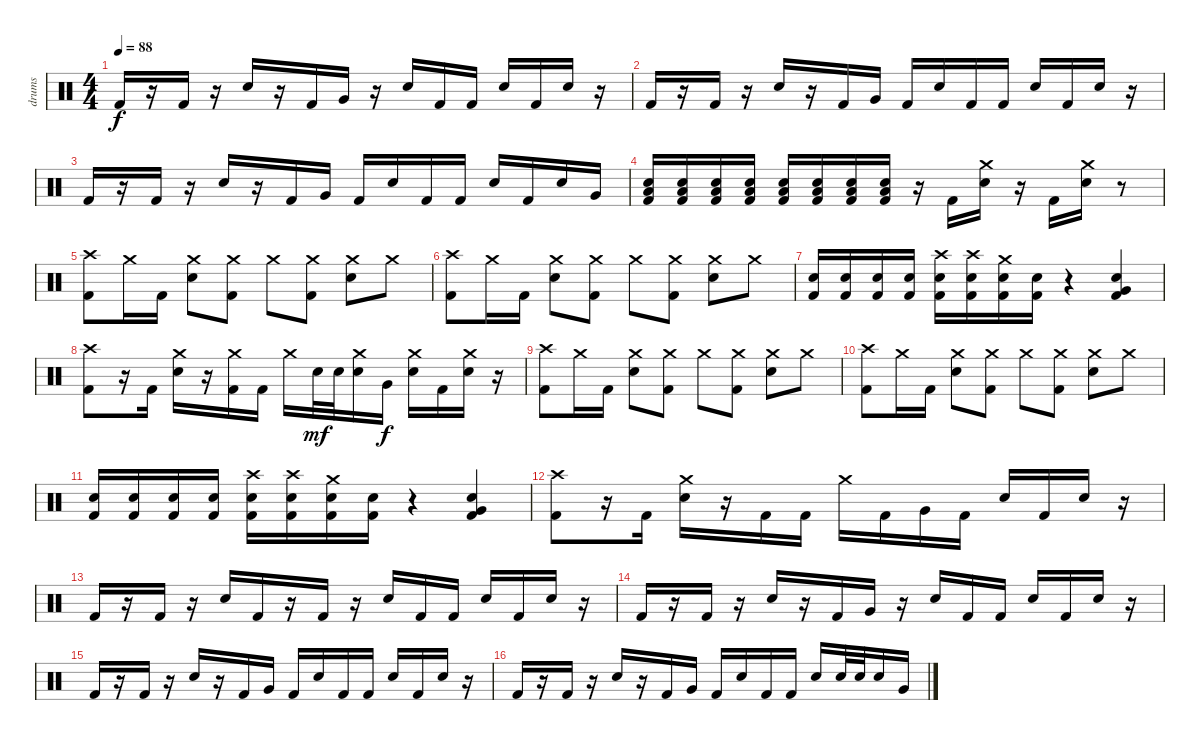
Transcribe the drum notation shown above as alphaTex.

\track ("drums" "drums") {instrument percussion}
\staff {score}
\articulation defaults
\ts (4 4)
\tempo 88
\clef neutral
\ks c "Kick (hit) 2".16{dy f}
r.16 "Kick (hit) 2".16 r.16 "Electric Snare (hit)".16 r.16 "Kick (hit) 2".16 "Very Low Tom (hit)".16 r.16 "Electric Snare (hit)".16 "Kick (hit) 2".16 "Kick (hit) 2".16 "Electric Snare (hit)".16 "Kick (hit) 2".16 "Electric Snare (hit)".16 r.16 |
"Kick (hit) 2".16 r.16 "Kick (hit) 2".16 r.16 "Electric Snare (hit)".16 r.16 "Kick (hit) 2".16 "Very Low Tom (hit)".16 "Kick (hit) 2".16 "Electric Snare (hit)".16 "Kick (hit) 2".16 "Kick (hit) 2".16 "Electric Snare (hit)".16 "Kick (hit) 2".16 "Electric Snare (hit)".16 r.16 |
"Kick (hit) 2".16 r.16 "Kick (hit) 2".16 r.16 "Electric Snare (hit)".16 r.16 "Kick (hit) 2".16 "Very Low Tom (hit)".16 "Kick (hit) 2".16 "Electric Snare (hit)".16 "Kick (hit) 2".16 "Kick (hit) 2".16 "Electric Snare (hit)".16 "Kick (hit) 2".16 "Electric Snare (hit)".16 "Very Low Tom (hit)".16 |
("Electric Snare (hit)" "Low Tom (hit)" "Kick (hit) 2").16 ("Electric Snare (hit)" "Low Tom (hit)" "Kick (hit) 2").16 ("Electric Snare (hit)" "Low Tom (hit)" "Kick (hit) 2").16 ("Electric Snare (hit)" "Low Tom (hit)" "Kick (hit) 2").16 ("Electric Snare (hit)" "Low Tom (hit)" "Kick (hit) 2").16 ("Electric Snare (hit)" "Low Tom (hit)" "Kick (hit) 2").16 ("Electric Snare (hit)" "Low Tom (hit)" "Kick (hit) 2").16 ("Electric Snare (hit)" "Low Tom (hit)" "Kick (hit) 2").16 r.16 "Kick (hit) 2".16 ("Crash medium (hit)" "Electric Snare (hit)").16 r.16 "Kick (hit) 2".16 ("Crash medium (hit)" "Electric Snare (hit)").16 r.8 |
("Crash high (hit)" "Kick (hit) 2").8 "Crash medium (hit)".16 "Kick (hit) 2".16 ("Crash medium (hit)" "Electric Snare (hit)").8 ("Crash medium (hit)" "Kick (hit) 2").8 "Crash medium (hit)".8 ("Crash medium (hit)" "Kick (hit) 2").8 ("Crash medium (hit)" "Electric Snare (hit)").8 "Crash medium (hit)".8 |
("Crash high (hit)" "Kick (hit) 2").8 "Crash medium (hit)".16 "Kick (hit) 2".16 ("Crash medium (hit)" "Electric Snare (hit)").8 ("Crash medium (hit)" "Kick (hit) 2").8 "Crash medium (hit)".8 ("Crash medium (hit)" "Kick (hit) 2").8 ("Crash medium (hit)" "Electric Snare (hit)").8 "Crash medium (hit)".8 |
("Electric Snare (hit)" "Kick (hit) 2").16 ("Electric Snare (hit)" "Kick (hit) 2").16 ("Electric Snare (hit)" "Kick (hit) 2").16 ("Electric Snare (hit)" "Kick (hit) 2").16 ("Crash high (hit)" "Electric Snare (hit)" "Kick (hit) 2").16 ("Crash high (hit)" "Electric Snare (hit)" "Kick (hit) 2").16 ("Crash medium (hit)" "Electric Snare (hit)" "Kick (hit) 2").16 ("Electric Snare (hit)" "Kick (hit) 2").16 r.4 ("Electric Snare (hit)" "Very Low Tom (hit)" "Kick (hit) 2").4 |
("Crash high (hit)" "Kick (hit) 2").8 r.16 "Kick (hit) 2".16 ("Crash medium (hit)" "Electric Snare (hit)").16 r.16 ("Crash medium (hit)" "Kick (hit) 2").16 "Kick (hit) 2".16 "Crash medium (hit)".16 "Electric Snare (hit)".32{dy mf} "Electric Snare (hit)".32 ("Crash medium (hit)" "Electric Snare (hit)").16 "Very Low Tom (hit)".16{dy f} ("Crash medium (hit)" "Electric Snare (hit)").16 "Kick (hit) 2".16 ("Crash medium (hit)" "Electric Snare (hit)").16 r.16 |
("Crash high (hit)" "Kick (hit) 2").8 "Crash medium (hit)".16 "Kick (hit) 2".16 ("Crash medium (hit)" "Electric Snare (hit)").8 ("Crash medium (hit)" "Kick (hit) 2").8 "Crash medium (hit)".8 ("Crash medium (hit)" "Kick (hit) 2").8 ("Crash medium (hit)" "Electric Snare (hit)").8 "Crash medium (hit)".8 |
("Crash high (hit)" "Kick (hit) 2").8 "Crash medium (hit)".16 "Kick (hit) 2".16 ("Crash medium (hit)" "Electric Snare (hit)").8 ("Crash medium (hit)" "Kick (hit) 2").8 "Crash medium (hit)".8 ("Crash medium (hit)" "Kick (hit) 2").8 ("Crash medium (hit)" "Electric Snare (hit)").8 "Crash medium (hit)".8 |
("Electric Snare (hit)" "Kick (hit) 2").16 ("Electric Snare (hit)" "Kick (hit) 2").16 ("Electric Snare (hit)" "Kick (hit) 2").16 ("Electric Snare (hit)" "Kick (hit) 2").16 ("Crash high (hit)" "Electric Snare (hit)" "Kick (hit) 2").16 ("Crash high (hit)" "Electric Snare (hit)" "Kick (hit) 2").16 ("Crash medium (hit)" "Electric Snare (hit)" "Kick (hit) 2").16 ("Electric Snare (hit)" "Kick (hit) 2").16 r.4 ("Electric Snare (hit)" "Very Low Tom (hit)" "Kick (hit) 2").4 |
("Crash high (hit)" "Kick (hit) 2").8 r.16 "Kick (hit) 2".16 ("Crash medium (hit)" "Electric Snare (hit)").16 r.16 "Kick (hit) 2".16 "Kick (hit) 2".16 "Crash medium (hit)".16 "Kick (hit) 2".16 "Very Low Tom (hit)".16 "Kick (hit) 2".16 "Electric Snare (hit)".16 "Kick (hit) 2".16 "Electric Snare (hit)".16 r.16 |
"Kick (hit) 2".16 r.16 "Kick (hit) 2".16 r.16 "Electric Snare (hit)".16 "Kick (hit) 2".16 r.16 "Kick (hit) 2".16 r.16 "Electric Snare (hit)".16 "Kick (hit) 2".16 "Kick (hit) 2".16 "Electric Snare (hit)".16 "Kick (hit) 2".16 "Electric Snare (hit)".16 r.16 |
"Kick (hit) 2".16 r.16 "Kick (hit) 2".16 r.16 "Electric Snare (hit)".16 r.16 "Kick (hit) 2".16 "Very Low Tom (hit)".16 r.16 "Electric Snare (hit)".16 "Kick (hit) 2".16 "Kick (hit) 2".16 "Electric Snare (hit)".16 "Kick (hit) 2".16 "Electric Snare (hit)".16 r.16 |
"Kick (hit) 2".16 r.16 "Kick (hit) 2".16 r.16 "Electric Snare (hit)".16 r.16 "Kick (hit) 2".16 "Very Low Tom (hit)".16 "Kick (hit) 2".16 "Electric Snare (hit)".16 "Kick (hit) 2".16 "Kick (hit) 2".16 "Electric Snare (hit)".16 "Kick (hit) 2".16 "Electric Snare (hit)".16 r.16 |
"Kick (hit) 2".16 r.16 "Kick (hit) 2".16 r.16 "Electric Snare (hit)".16 r.16 "Kick (hit) 2".16 "Very Low Tom (hit)".16 "Kick (hit) 2".16 "Electric Snare (hit)".16 "Kick (hit) 2".16 "Kick (hit) 2".16 "Electric Snare (hit)".16 "Electric Snare (hit)".32 "Electric Snare (hit)".32 "Electric Snare (hit)".16 "Very Low Tom (hit)".16
